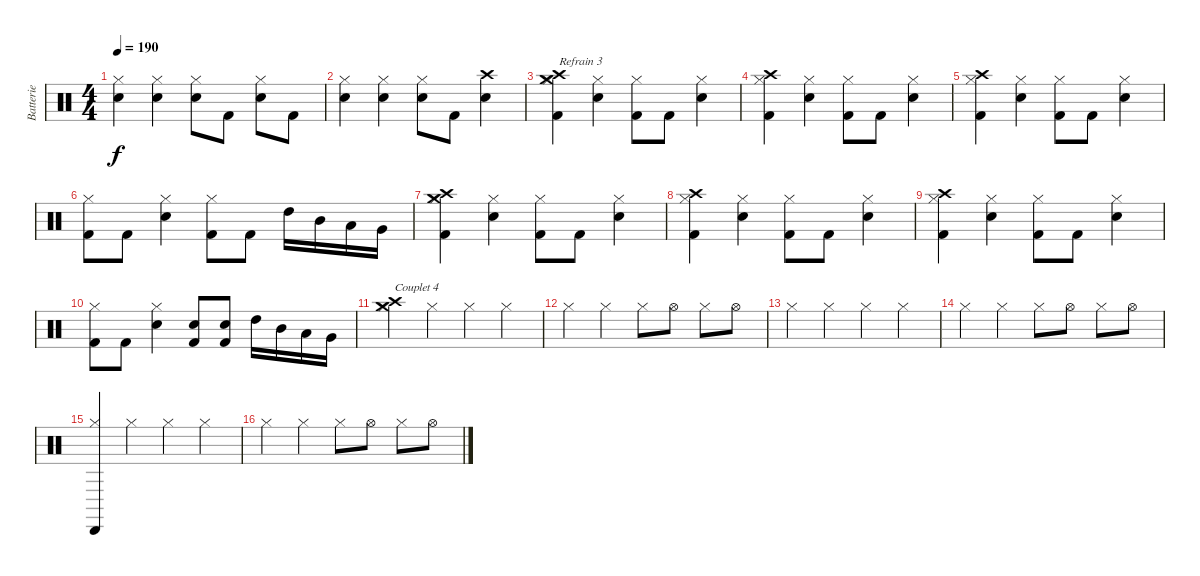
\track ("Batterie" "Batterie") {instrument percussion}
\staff {score}
\articulation defaults
\ts (4 4)
\tempo 190
\clef neutral
\ks c
("Electric Snare (hit)" "Hi-Hat (closed)").4{dy f} ("Electric Snare (hit)" "Hi-Hat (closed)").4 ("Electric Snare (hit)" "Hi-Hat (closed)").8 "Kick (hit) 2".8 ("Electric Snare (hit)" "Hi-Hat (closed)").8 "Kick (hit) 2".8 |
("Electric Snare (hit)" "Hi-Hat (closed)").4 ("Electric Snare (hit)" "Hi-Hat (closed)").4 ("Electric Snare (hit)" "Hi-Hat (closed)").8 "Kick (hit) 2".8 ("Crash high (hit)" "Electric Snare (hit)").4 |
("Crash medium (hit)" "Crash high (hit)" "Hi-Hat (closed)" "Kick (hit) 2").4{txt "Refrain 3"} ("Electric Snare (hit)" "Hi-Hat (closed)").4 ("Hi-Hat (closed)" "Kick (hit) 2").8 "Kick (hit) 2".8 ("Electric Snare (hit)" "Hi-Hat (closed)").4 |
("Crash high (hit)" "Hi-Hat (closed)" "Kick (hit) 2").4 ("Electric Snare (hit)" "Hi-Hat (closed)").4 ("Hi-Hat (closed)" "Kick (hit) 2").8 "Kick (hit) 2".8 ("Electric Snare (hit)" "Hi-Hat (closed)").4 |
("Crash high (hit)" "Hi-Hat (closed)" "Kick (hit) 2").4 ("Electric Snare (hit)" "Hi-Hat (closed)").4 ("Hi-Hat (closed)" "Kick (hit) 2").8 "Kick (hit) 2".8 ("Electric Snare (hit)" "Hi-Hat (closed)").4 |
("Hi-Hat (closed)" "Kick (hit) 2").8 "Kick (hit) 2".8 ("Electric Snare (hit)" "Hi-Hat (closed)").4 ("Hi-Hat (closed)" "Kick (hit) 2").8 "Kick (hit) 2".8 "High Tom (hit)".16 "Mid Tom (hit)".16 "Low Tom (hit)".16 "Very Low Tom (hit)".16 |
("Crash medium (hit)" "Crash high (hit)" "Hi-Hat (closed)" "Kick (hit) 2").4 ("Electric Snare (hit)" "Hi-Hat (closed)").4 ("Hi-Hat (closed)" "Kick (hit) 2").8 "Kick (hit) 2".8 ("Electric Snare (hit)" "Hi-Hat (closed)").4 |
("Crash high (hit)" "Hi-Hat (closed)" "Kick (hit) 2").4 ("Electric Snare (hit)" "Hi-Hat (closed)").4 ("Hi-Hat (closed)" "Kick (hit) 2").8 "Kick (hit) 2".8 ("Electric Snare (hit)" "Hi-Hat (closed)").4 |
("Crash high (hit)" "Hi-Hat (closed)" "Kick (hit) 2").4 ("Electric Snare (hit)" "Hi-Hat (closed)").4 ("Hi-Hat (closed)" "Kick (hit) 2").8 "Kick (hit) 2".8 ("Electric Snare (hit)" "Hi-Hat (closed)").4 |
("Hi-Hat (closed)" "Kick (hit) 2").8 "Kick (hit) 2".8 ("Electric Snare (hit)" "Hi-Hat (closed)").4 ("Electric Snare (hit)" "Kick (hit) 2").8 ("Electric Snare (hit)" "Kick (hit) 2").8 "High Tom (hit)".16 "Mid Tom (hit)".16 "Low Tom (hit)".16 "Very Low Tom (hit)".16 |
("Crash medium (hit)" "Crash high (hit)" "Hi-Hat (closed)").4{txt "Couplet 4"} "Hi-Hat (closed)".4 "Hi-Hat (closed)".4 "Hi-Hat (closed)".4 |
"Hi-Hat (closed)".4 "Hi-Hat (closed)".4 "Hi-Hat (closed)".8 "Hi-Hat (open)".8 "Hi-Hat (closed)".8 "Hi-Hat (open)".8 |
"Hi-Hat (closed)".4 "Hi-Hat (closed)".4 "Hi-Hat (closed)".4 "Hi-Hat (closed)".4 |
"Hi-Hat (closed)".4 "Hi-Hat (closed)".4 "Hi-Hat (closed)".8 "Hi-Hat (open)".8 "Hi-Hat (closed)".8 "Hi-Hat (open)".8 |
("Cabasa (hit)" "Hi-Hat (closed)").4 "Hi-Hat (closed)".4 "Hi-Hat (closed)".4 "Hi-Hat (closed)".4 |
"Hi-Hat (closed)".4 "Hi-Hat (closed)".4 "Hi-Hat (closed)".8 "Hi-Hat (open)".8 "Hi-Hat (closed)".8 "Hi-Hat (open)".8
